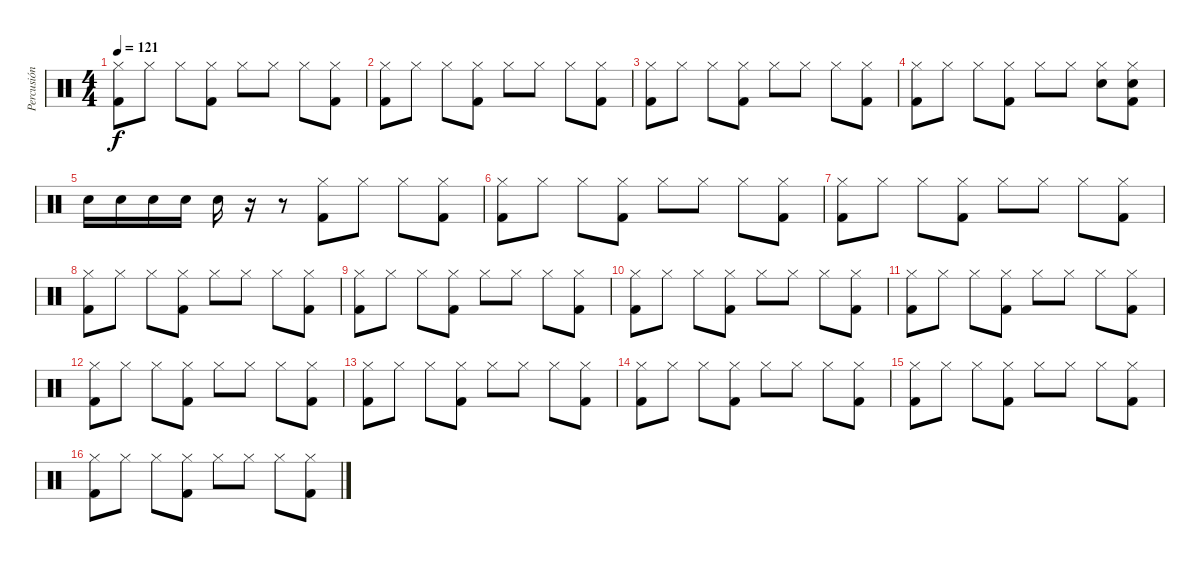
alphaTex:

\track ("Percusión" "Percusión") {instrument percussion}
\staff {score}
\articulation defaults
\ts (4 4)
\tempo 121
\clef neutral
\ks c
("Kick (hit) 2" "Hi-Hat (closed)").8{dy f} "Hi-Hat (closed)".8 "Hi-Hat (closed)".8 ("Kick (hit) 2" "Hi-Hat (closed)").8 "Hi-Hat (closed)".8 "Hi-Hat (closed)".8 "Hi-Hat (closed)".8 ("Kick (hit) 2" "Hi-Hat (closed)").8 |
("Kick (hit) 2" "Hi-Hat (closed)").8 "Hi-Hat (closed)".8 "Hi-Hat (closed)".8 ("Kick (hit) 2" "Hi-Hat (closed)").8 "Hi-Hat (closed)".8 "Hi-Hat (closed)".8 "Hi-Hat (closed)".8 ("Kick (hit) 2" "Hi-Hat (closed)").8 |
("Kick (hit) 2" "Hi-Hat (closed)").8 "Hi-Hat (closed)".8 "Hi-Hat (closed)".8 ("Kick (hit) 2" "Hi-Hat (closed)").8 "Hi-Hat (closed)".8 "Hi-Hat (closed)".8 "Hi-Hat (closed)".8 ("Kick (hit) 2" "Hi-Hat (closed)").8 |
("Kick (hit) 2" "Hi-Hat (closed)").8 "Hi-Hat (closed)".8 "Hi-Hat (closed)".8 ("Kick (hit) 2" "Hi-Hat (closed)").8 "Hi-Hat (closed)".8 "Hi-Hat (closed)".8 ("Hi-Hat (closed)" "Snare (hit) 2").8 ("Kick (hit) 2" "Hi-Hat (closed)" "Snare (hit) 2").8 |
"Snare (hit) 2".16 "Snare (hit) 2".16 "Snare (hit) 2".16 "Snare (hit) 2".16 "Snare (hit) 2".16 r.16 r.8 ("Kick (hit) 2" "Hi-Hat (closed)").8 "Hi-Hat (closed)".8 "Hi-Hat (closed)".8 ("Kick (hit) 2" "Hi-Hat (closed)").8 |
("Kick (hit) 2" "Hi-Hat (closed)").8 "Hi-Hat (closed)".8 "Hi-Hat (closed)".8 ("Kick (hit) 2" "Hi-Hat (closed)").8 "Hi-Hat (closed)".8 "Hi-Hat (closed)".8 "Hi-Hat (closed)".8 ("Kick (hit) 2" "Hi-Hat (closed)").8 |
("Kick (hit) 2" "Hi-Hat (closed)").8 "Hi-Hat (closed)".8 "Hi-Hat (closed)".8 ("Kick (hit) 2" "Hi-Hat (closed)").8 "Hi-Hat (closed)".8 "Hi-Hat (closed)".8 "Hi-Hat (closed)".8 ("Kick (hit) 2" "Hi-Hat (closed)").8 |
("Kick (hit) 2" "Hi-Hat (closed)").8 "Hi-Hat (closed)".8 "Hi-Hat (closed)".8 ("Kick (hit) 2" "Hi-Hat (closed)").8 "Hi-Hat (closed)".8 "Hi-Hat (closed)".8 "Hi-Hat (closed)".8 ("Kick (hit) 2" "Hi-Hat (closed)").8 |
("Kick (hit) 2" "Hi-Hat (closed)").8 "Hi-Hat (closed)".8 "Hi-Hat (closed)".8 ("Kick (hit) 2" "Hi-Hat (closed)").8 "Hi-Hat (closed)".8 "Hi-Hat (closed)".8 "Hi-Hat (closed)".8 ("Kick (hit) 2" "Hi-Hat (closed)").8 |
("Kick (hit) 2" "Hi-Hat (closed)").8 "Hi-Hat (closed)".8 "Hi-Hat (closed)".8 ("Kick (hit) 2" "Hi-Hat (closed)").8 "Hi-Hat (closed)".8 "Hi-Hat (closed)".8 "Hi-Hat (closed)".8 ("Kick (hit) 2" "Hi-Hat (closed)").8 |
("Kick (hit) 2" "Hi-Hat (closed)").8 "Hi-Hat (closed)".8 "Hi-Hat (closed)".8 ("Kick (hit) 2" "Hi-Hat (closed)").8 "Hi-Hat (closed)".8 "Hi-Hat (closed)".8 "Hi-Hat (closed)".8 ("Kick (hit) 2" "Hi-Hat (closed)").8 |
("Kick (hit) 2" "Hi-Hat (closed)").8 "Hi-Hat (closed)".8 "Hi-Hat (closed)".8 ("Kick (hit) 2" "Hi-Hat (closed)").8 "Hi-Hat (closed)".8 "Hi-Hat (closed)".8 "Hi-Hat (closed)".8 ("Kick (hit) 2" "Hi-Hat (closed)").8 |
("Kick (hit) 2" "Hi-Hat (closed)").8 "Hi-Hat (closed)".8 "Hi-Hat (closed)".8 ("Kick (hit) 2" "Hi-Hat (closed)").8 "Hi-Hat (closed)".8 "Hi-Hat (closed)".8 "Hi-Hat (closed)".8 ("Kick (hit) 2" "Hi-Hat (closed)").8 |
("Kick (hit) 2" "Hi-Hat (closed)").8 "Hi-Hat (closed)".8 "Hi-Hat (closed)".8 ("Kick (hit) 2" "Hi-Hat (closed)").8 "Hi-Hat (closed)".8 "Hi-Hat (closed)".8 "Hi-Hat (closed)".8 ("Kick (hit) 2" "Hi-Hat (closed)").8 |
("Kick (hit) 2" "Hi-Hat (closed)").8 "Hi-Hat (closed)".8 "Hi-Hat (closed)".8 ("Kick (hit) 2" "Hi-Hat (closed)").8 "Hi-Hat (closed)".8 "Hi-Hat (closed)".8 "Hi-Hat (closed)".8 ("Kick (hit) 2" "Hi-Hat (closed)").8 |
("Kick (hit) 2" "Hi-Hat (closed)").8 "Hi-Hat (closed)".8 "Hi-Hat (closed)".8 ("Kick (hit) 2" "Hi-Hat (closed)").8 "Hi-Hat (closed)".8 "Hi-Hat (closed)".8 "Hi-Hat (closed)".8 ("Kick (hit) 2" "Hi-Hat (closed)").8
